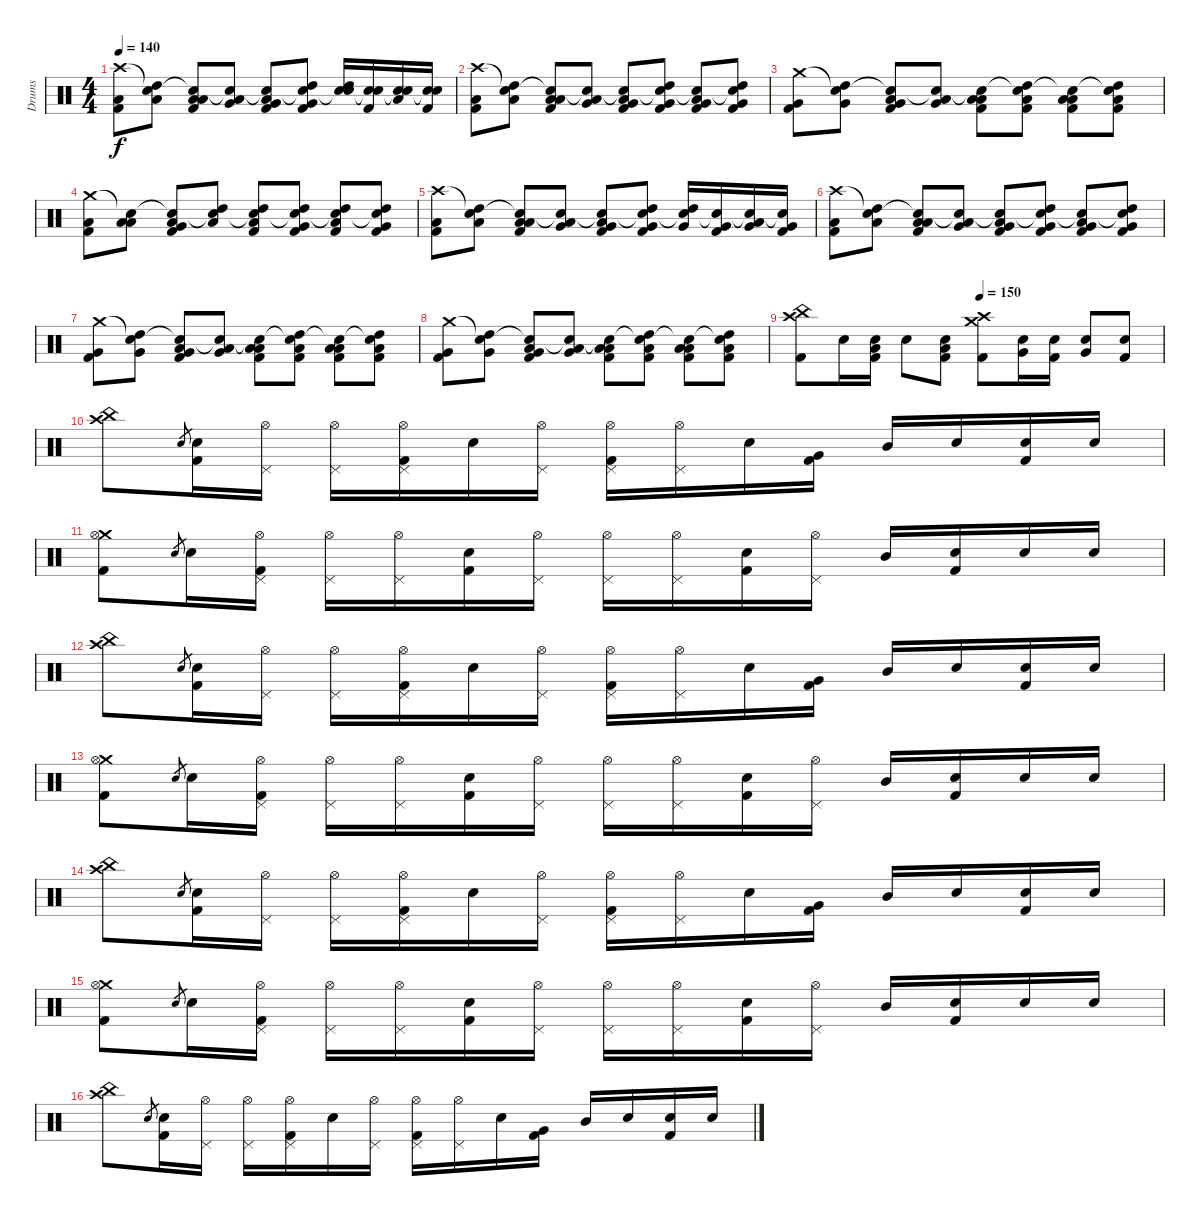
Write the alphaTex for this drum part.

\track ("Drums" "Drums") {instrument percussion}
\staff {score}
\articulation defaults
\ts (4 4)
\tempo 140
\clef neutral
\ks c
("Crash high (hit)" "Low Floor Tom (hit)" "Kick (hit) 2").8{dy f} ("Snare (hit)"{t} "Low Floor Tom (hit)" "High Tom (hit)").8 ("Snare (hit)"{t} "Low Floor Tom (hit)" "Low Tom (hit)" "Kick (hit) 2").8 ("Snare (hit)"{t} "Low Floor Tom (hit)" "Very Low Tom (hit)").8 ("Snare (hit)"{t} "Very Low Tom (hit)" "Low Tom (hit)" "Kick (hit) 2").8 ("Snare (hit)"{t} "Very Low Tom (hit)" "Kick (hit) 2" "High Tom (hit)").8 ("Snare (hit)"{t} "High Tom (hit)" "Snare (hit) 2").16 ("Snare (hit)"{t} "Kick (hit) 2" "Snare (hit) 2").16 ("Snare (hit)"{t} "Low Tom (hit)" "Snare (hit) 2").16 ("Snare (hit)"{t} "Kick (hit) 2" "Snare (hit) 2").16 |
("Crash high (hit)" "Low Floor Tom (hit)" "Kick (hit) 2").8 ("Snare (hit)"{t} "Low Floor Tom (hit)" "High Tom (hit)").8 ("Snare (hit)"{t} "Low Floor Tom (hit)" "Low Tom (hit)" "Kick (hit) 2").8 ("Snare (hit)"{t} "Low Floor Tom (hit)" "Very Low Tom (hit)").8 ("Snare (hit)"{t} "Very Low Tom (hit)" "Low Tom (hit)" "Kick (hit) 2").8 ("Snare (hit)"{t} "Very Low Tom (hit)" "Kick (hit) 2" "High Tom (hit)").8 ("Snare (hit)"{t} "Very Low Tom (hit)" "Low Tom (hit)" "Kick (hit) 2").8 ("Snare (hit)"{t} "Very Low Tom (hit)" "Kick (hit) 2" "High Tom (hit)").8 |
("Crash medium (hit)" "Very Low Tom (hit)" "Kick (hit) 2").8 ("Snare (hit)"{t} "Very Low Tom (hit)" "High Tom (hit)").8 ("Snare (hit)"{t} "Very Low Tom (hit)" "Low Tom (hit)" "Kick (hit) 2").8 ("Snare (hit)"{t} "Very Low Tom (hit)" "Low Floor Tom (hit)").8 ("Snare (hit)"{t} "Low Floor Tom (hit)" "Low Tom (hit)" "Kick (hit) 2").8 ("Snare (hit)"{t} "Low Floor Tom (hit)" "Kick (hit) 2" "High Tom (hit)").8 ("Snare (hit)"{t} "Low Floor Tom (hit)" "Low Tom (hit)" "Kick (hit) 2").8 ("Snare (hit)"{t} "Low Floor Tom (hit)" "Kick (hit) 2" "High Tom (hit)").8 |
("Crash medium (hit)" "Low Tom (hit)" "Kick (hit) 2").8 ("Snare (hit)"{t} "Low Tom (hit)" "Low Floor Tom (hit)").8 ("Snare (hit)"{t} "Low Tom (hit)" "Very Low Tom (hit)" "Kick (hit) 2").8 ("Snare (hit)"{t} "Low Tom (hit)" "High Tom (hit)").8 ("Snare (hit)"{t} "High Tom (hit)" "Low Floor Tom (hit)" "Kick (hit) 2").8 ("Snare (hit)"{t} "High Tom (hit)" "Kick (hit) 2" "Very Low Tom (hit)").8 ("Snare (hit)"{t} "High Tom (hit)" "Low Floor Tom (hit)" "Kick (hit) 2").8 ("Snare (hit)"{t} "High Tom (hit)" "Kick (hit) 2" "Very Low Tom (hit)").8 |
("Crash high (hit)" "Low Floor Tom (hit)" "Kick (hit) 2").8 ("Snare (hit)"{t} "Low Floor Tom (hit)" "High Tom (hit)").8 ("Snare (hit)"{t} "Low Floor Tom (hit)" "Low Tom (hit)" "Kick (hit) 2").8 ("Snare (hit)"{t} "Low Floor Tom (hit)" "Very Low Tom (hit)").8 ("Snare (hit)"{t} "Very Low Tom (hit)" "Low Tom (hit)" "Kick (hit) 2").8 ("Snare (hit)"{t} "Very Low Tom (hit)" "Kick (hit) 2" "High Tom (hit)").8 ("Snare (hit)"{t} "High Tom (hit)" "Very Low Tom (hit)").16 ("Snare (hit)"{t} "Kick (hit) 2" "Very Low Tom (hit)").16 ("Snare (hit)"{t} "Low Tom (hit)" "Very Low Tom (hit)").16 ("Snare (hit)"{t} "Kick (hit) 2" "Very Low Tom (hit)").16 |
("Crash high (hit)" "Low Floor Tom (hit)" "Kick (hit) 2").8 ("Snare (hit)"{t} "Low Floor Tom (hit)" "High Tom (hit)").8 ("Snare (hit)"{t} "Low Floor Tom (hit)" "Low Tom (hit)" "Kick (hit) 2").8 ("Snare (hit)"{t} "Low Floor Tom (hit)" "Very Low Tom (hit)").8 ("Snare (hit)"{t} "Very Low Tom (hit)" "Low Tom (hit)" "Kick (hit) 2").8 ("Snare (hit)"{t} "Very Low Tom (hit)" "Kick (hit) 2" "High Tom (hit)").8 ("Snare (hit)"{t} "Very Low Tom (hit)" "Low Tom (hit)" "Kick (hit) 2").8 ("Snare (hit)"{t} "Very Low Tom (hit)" "Kick (hit) 2" "High Tom (hit)").8 |
("Crash medium (hit)" "Very Low Tom (hit)" "Kick (hit) 2").8 ("Snare (hit)"{t} "Very Low Tom (hit)" "High Tom (hit)").8 ("Snare (hit)"{t} "Very Low Tom (hit)" "Low Tom (hit)" "Kick (hit) 2").8 ("Snare (hit)"{t} "Very Low Tom (hit)" "Low Floor Tom (hit)").8 ("Snare (hit)"{t} "Low Floor Tom (hit)" "Low Tom (hit)" "Kick (hit) 2").8 ("Snare (hit)"{t} "Low Floor Tom (hit)" "Kick (hit) 2" "High Tom (hit)").8 ("Snare (hit)"{t} "Low Floor Tom (hit)" "Low Tom (hit)" "Kick (hit) 2").8 ("Snare (hit)"{t} "Low Floor Tom (hit)" "Kick (hit) 2" "High Tom (hit)").8 |
("Crash medium (hit)" "Very Low Tom (hit)" "Kick (hit) 2").8 ("Snare (hit)"{t} "Very Low Tom (hit)" "High Tom (hit)").8 ("Snare (hit)"{t} "Very Low Tom (hit)" "Low Tom (hit)" "Kick (hit) 2").8 ("Snare (hit)"{t} "Very Low Tom (hit)" "Low Floor Tom (hit)").8 ("Snare (hit)"{t} "Low Floor Tom (hit)" "Low Tom (hit)" "Kick (hit) 2").8 ("Snare (hit)"{t} "Low Floor Tom (hit)" "Kick (hit) 2" "High Tom (hit)").8 ("Snare (hit)"{t} "Low Floor Tom (hit)" "Low Tom (hit)" "Kick (hit) 2").8 ("Snare (hit)"{t} "Low Floor Tom (hit)" "Kick (hit) 2" "High Tom (hit)").8 |
\tempo (150 0.5)
("Crash high (hit)" "China (hit)" "Kick (hit) 2").8 "Snare (hit) 2".16 ("Snare (hit) 2" "Low Floor Tom (hit)" "Kick (hit) 2").16 "Snare (hit) 2".8 ("Snare (hit) 2" "Low Floor Tom (hit)" "Kick (hit) 2").8 ("Crash medium (hit)" "Crash high (hit)" "Kick (hit) 2").8{volume 12} ("Snare (hit) 2" "Very Low Tom (hit)").16 ("Snare (hit) 2" "Kick (hit) 2").16 ("Snare (hit) 2" "Very Low Tom (hit)").8 ("Snare (hit) 2" "Kick (hit) 2").8 |
("Crash high (hit)" "China (hit)").8 "Snare (hit) 2".8{gr} ("Snare (hit) 2" "Kick (hit) 2").16 ("Hi-Hat (open)" "Pedal Hi-Hat (hit)").16 ("Hi-Hat (open)" "Pedal Hi-Hat (hit)").16 ("Hi-Hat (open)" "Pedal Hi-Hat (hit)" "Kick (hit) 2").16 "Snare (hit) 2".16 ("Hi-Hat (open)" "Pedal Hi-Hat (hit)").16 ("Hi-Hat (open)" "Pedal Hi-Hat (hit)" "Kick (hit) 2").16 ("Hi-Hat (open)" "Pedal Hi-Hat (hit)").16 "Snare (hit) 2".16 ("Very Low Tom (hit)" "Kick (hit) 2").16 "Mid Tom (hit)".16 "Snare (hit) 2".16 ("Snare (hit) 2" "Kick (hit) 2").16 "Snare (hit) 2".16 |
("Crash medium (hit)" "Kick (hit) 2" "Hi-Hat (open)").8 "Snare (hit) 2".8{gr} "Snare (hit) 2".16 ("Hi-Hat (open)" "Pedal Hi-Hat (hit)" "Kick (hit) 2").16 ("Hi-Hat (open)" "Pedal Hi-Hat (hit)").16 ("Hi-Hat (open)" "Pedal Hi-Hat (hit)").16 ("Snare (hit) 2" "Kick (hit) 2").16 ("Hi-Hat (open)" "Pedal Hi-Hat (hit)").16 ("Hi-Hat (open)" "Pedal Hi-Hat (hit)").16 ("Hi-Hat (open)" "Pedal Hi-Hat (hit)").16 ("Snare (hit) 2" "Kick (hit) 2").16 ("Hi-Hat (open)" "Pedal Hi-Hat (hit)").16 "Mid Tom (hit)".16 ("Snare (hit) 2" "Kick (hit) 2").16 "Snare (hit) 2".16 "Snare (hit) 2".16 |
("Crash high (hit)" "China (hit)").8 "Snare (hit) 2".8{gr} ("Snare (hit) 2" "Kick (hit) 2").16 ("Hi-Hat (open)" "Pedal Hi-Hat (hit)").16 ("Hi-Hat (open)" "Pedal Hi-Hat (hit)").16 ("Hi-Hat (open)" "Pedal Hi-Hat (hit)" "Kick (hit) 2").16 "Snare (hit) 2".16 ("Hi-Hat (open)" "Pedal Hi-Hat (hit)").16 ("Hi-Hat (open)" "Pedal Hi-Hat (hit)" "Kick (hit) 2").16 ("Hi-Hat (open)" "Pedal Hi-Hat (hit)").16 "Snare (hit) 2".16 ("Very Low Tom (hit)" "Kick (hit) 2").16 "Mid Tom (hit)".16 "Snare (hit) 2".16 ("Snare (hit) 2" "Kick (hit) 2").16 "Snare (hit) 2".16 |
("Crash medium (hit)" "Kick (hit) 2" "Hi-Hat (open)").8 "Snare (hit) 2".8{gr} "Snare (hit) 2".16 ("Hi-Hat (open)" "Pedal Hi-Hat (hit)" "Kick (hit) 2").16 ("Hi-Hat (open)" "Pedal Hi-Hat (hit)").16 ("Hi-Hat (open)" "Pedal Hi-Hat (hit)").16 ("Snare (hit) 2" "Kick (hit) 2").16 ("Hi-Hat (open)" "Pedal Hi-Hat (hit)").16 ("Hi-Hat (open)" "Pedal Hi-Hat (hit)").16 ("Hi-Hat (open)" "Pedal Hi-Hat (hit)").16 ("Snare (hit) 2" "Kick (hit) 2").16 ("Hi-Hat (open)" "Pedal Hi-Hat (hit)").16 "Mid Tom (hit)".16 ("Snare (hit) 2" "Kick (hit) 2").16 "Snare (hit) 2".16 "Snare (hit) 2".16 |
("Crash high (hit)" "China (hit)").8 "Snare (hit) 2".8{gr} ("Snare (hit) 2" "Kick (hit) 2").16 ("Hi-Hat (open)" "Pedal Hi-Hat (hit)").16 ("Hi-Hat (open)" "Pedal Hi-Hat (hit)").16 ("Hi-Hat (open)" "Pedal Hi-Hat (hit)" "Kick (hit) 2").16 "Snare (hit) 2".16 ("Hi-Hat (open)" "Pedal Hi-Hat (hit)").16 ("Hi-Hat (open)" "Pedal Hi-Hat (hit)" "Kick (hit) 2").16 ("Hi-Hat (open)" "Pedal Hi-Hat (hit)").16 "Snare (hit) 2".16 ("Very Low Tom (hit)" "Kick (hit) 2").16 "Mid Tom (hit)".16 "Snare (hit) 2".16 ("Snare (hit) 2" "Kick (hit) 2").16 "Snare (hit) 2".16 |
("Crash medium (hit)" "Kick (hit) 2" "Hi-Hat (open)").8 "Snare (hit) 2".8{gr} "Snare (hit) 2".16 ("Hi-Hat (open)" "Pedal Hi-Hat (hit)" "Kick (hit) 2").16 ("Hi-Hat (open)" "Pedal Hi-Hat (hit)").16 ("Hi-Hat (open)" "Pedal Hi-Hat (hit)").16 ("Snare (hit) 2" "Kick (hit) 2").16 ("Hi-Hat (open)" "Pedal Hi-Hat (hit)").16 ("Hi-Hat (open)" "Pedal Hi-Hat (hit)").16 ("Hi-Hat (open)" "Pedal Hi-Hat (hit)").16 ("Snare (hit) 2" "Kick (hit) 2").16 ("Hi-Hat (open)" "Pedal Hi-Hat (hit)").16 "Mid Tom (hit)".16 ("Snare (hit) 2" "Kick (hit) 2").16 "Snare (hit) 2".16 "Snare (hit) 2".16 |
("Crash high (hit)" "China (hit)").8 "Snare (hit) 2".8{gr} ("Snare (hit) 2" "Kick (hit) 2").16 ("Hi-Hat (open)" "Pedal Hi-Hat (hit)").16 ("Hi-Hat (open)" "Pedal Hi-Hat (hit)").16 ("Hi-Hat (open)" "Pedal Hi-Hat (hit)" "Kick (hit) 2").16 "Snare (hit) 2".16 ("Hi-Hat (open)" "Pedal Hi-Hat (hit)").16 ("Hi-Hat (open)" "Pedal Hi-Hat (hit)" "Kick (hit) 2").16 ("Hi-Hat (open)" "Pedal Hi-Hat (hit)").16 "Snare (hit) 2".16 ("Very Low Tom (hit)" "Kick (hit) 2").16 "Mid Tom (hit)".16 "Snare (hit) 2".16 ("Snare (hit) 2" "Kick (hit) 2").16 "Snare (hit) 2".16
